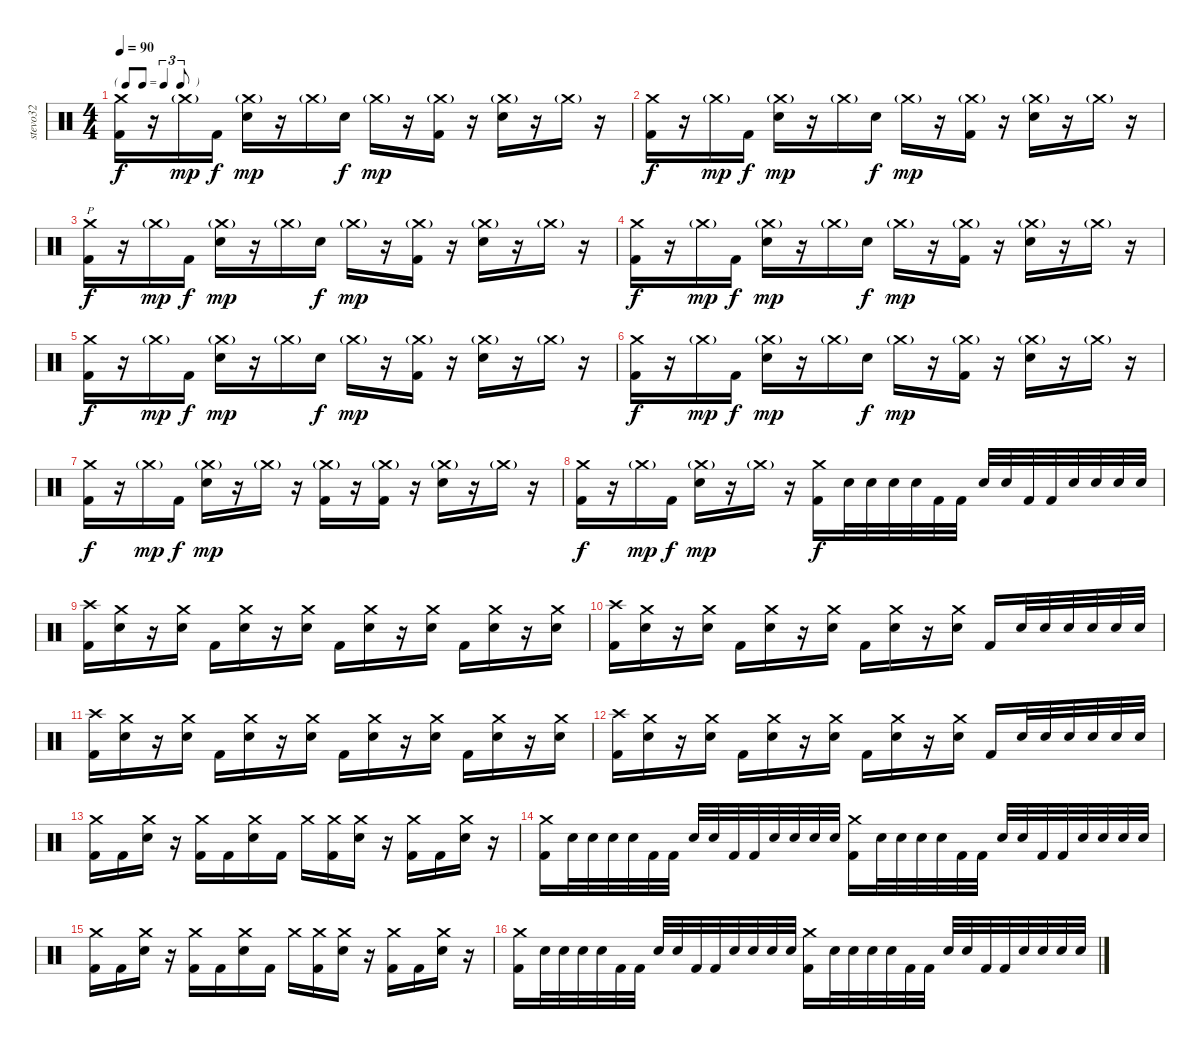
\track ("stevo32" "stevo32") {instrument percussion}
\staff {score}
\articulation defaults
\ts (4 4)
\tf triplet8th
\tempo 90
\clef neutral
\ks c
("Crash medium (hit)" "Kick (hit) 2").16{dy f} r.16 "Crash medium (hit)"{g}.16{dy mp} "Kick (hit) 2".16{dy f} ("Crash medium (hit)"{g} "Electric Snare (hit)").16{dy mp} r.16 "Crash medium (hit)"{g}.16 "Electric Snare (hit)".16{dy f} "Crash medium (hit)"{g}.16{dy mp} r.16 ("Crash medium (hit)"{g} "Kick (hit) 2").16 r.16 ("Crash medium (hit)"{g} "Electric Snare (hit)").16 r.16 "Crash medium (hit)"{g}.16 r.16 |
("Crash medium (hit)" "Kick (hit) 2").16{dy f} r.16 "Crash medium (hit)"{g}.16{dy mp} "Kick (hit) 2".16{dy f} ("Crash medium (hit)"{g} "Electric Snare (hit)").16{dy mp} r.16 "Crash medium (hit)"{g}.16 "Electric Snare (hit)".16{dy f} "Crash medium (hit)"{g}.16{dy mp} r.16 ("Crash medium (hit)"{g} "Kick (hit) 2").16 r.16 ("Crash medium (hit)"{g} "Electric Snare (hit)").16 r.16 "Crash medium (hit)"{g}.16 r.16 |
("Crash medium (hit)" "Kick (hit) 2").16{p dy f} r.16 "Crash medium (hit)"{g}.16{dy mp} "Kick (hit) 2".16{dy f} ("Crash medium (hit)"{g} "Electric Snare (hit)").16{dy mp} r.16 "Crash medium (hit)"{g}.16 "Electric Snare (hit)".16{dy f} "Crash medium (hit)"{g}.16{dy mp} r.16 ("Crash medium (hit)"{g} "Kick (hit) 2").16 r.16 ("Crash medium (hit)"{g} "Electric Snare (hit)").16 r.16 "Crash medium (hit)"{g}.16 r.16 |
("Crash medium (hit)" "Kick (hit) 2").16{dy f} r.16 "Crash medium (hit)"{g}.16{dy mp} "Kick (hit) 2".16{dy f} ("Crash medium (hit)"{g} "Electric Snare (hit)").16{dy mp} r.16 "Crash medium (hit)"{g}.16 "Electric Snare (hit)".16{dy f} "Crash medium (hit)"{g}.16{dy mp} r.16 ("Crash medium (hit)"{g} "Kick (hit) 2").16 r.16 ("Crash medium (hit)"{g} "Electric Snare (hit)").16 r.16 "Crash medium (hit)"{g}.16 r.16 |
("Crash medium (hit)" "Kick (hit) 2").16{dy f} r.16 "Crash medium (hit)"{g}.16{dy mp} "Kick (hit) 2".16{dy f} ("Crash medium (hit)"{g} "Electric Snare (hit)").16{dy mp} r.16 "Crash medium (hit)"{g}.16 "Electric Snare (hit)".16{dy f} "Crash medium (hit)"{g}.16{dy mp} r.16 ("Crash medium (hit)"{g} "Kick (hit) 2").16 r.16 ("Crash medium (hit)"{g} "Electric Snare (hit)").16 r.16 "Crash medium (hit)"{g}.16 r.16 |
("Crash medium (hit)" "Kick (hit) 2").16{dy f} r.16 "Crash medium (hit)"{g}.16{dy mp} "Kick (hit) 2".16{dy f} ("Crash medium (hit)"{g} "Electric Snare (hit)").16{dy mp} r.16 "Crash medium (hit)"{g}.16 "Electric Snare (hit)".16{dy f} "Crash medium (hit)"{g}.16{dy mp} r.16 ("Crash medium (hit)"{g} "Kick (hit) 2").16 r.16 ("Crash medium (hit)"{g} "Electric Snare (hit)").16 r.16 "Crash medium (hit)"{g}.16 r.16 |
("Crash medium (hit)" "Kick (hit) 2").16{dy f} r.16 "Crash medium (hit)"{g}.16{dy mp} "Kick (hit) 2".16{dy f} ("Crash medium (hit)"{g} "Electric Snare (hit)").16{dy mp} r.16 "Crash medium (hit)"{g}.16 r.16 ("Crash medium (hit)"{g} "Kick (hit) 2").16 r.16 ("Crash medium (hit)"{g} "Kick (hit) 2").16 r.16 ("Crash medium (hit)"{g} "Electric Snare (hit)").16 r.16 "Crash medium (hit)"{g}.16 r.16 |
("Crash medium (hit)" "Kick (hit) 2").16{dy f} r.16 "Crash medium (hit)"{g}.16{dy mp} "Kick (hit) 2".16{dy f} ("Crash medium (hit)"{g} "Electric Snare (hit)").16{dy mp} r.16 "Crash medium (hit)"{g}.16 r.16 ("Crash medium (hit)" "Kick (hit) 2").16{dy f} "Electric Snare (hit)".32 "Electric Snare (hit)".32 "Electric Snare (hit)".32 "Electric Snare (hit)".32 "Kick (hit) 2".32 "Kick (hit) 2".32 "Electric Snare (hit)".32 "Electric Snare (hit)".32 "Kick (hit) 2".32 "Kick (hit) 2".32 "Electric Snare (hit)".32 "Electric Snare (hit)".32 "Electric Snare (hit)".32 "Electric Snare (hit)".32 |
("Crash high (hit)" "Kick (hit) 2").16 ("Crash medium (hit)" "Electric Snare (hit)").16 r.16 ("Crash medium (hit)" "Electric Snare (hit)").16 "Kick (hit) 2".16 ("Crash medium (hit)" "Electric Snare (hit)").16 r.16 ("Crash medium (hit)" "Electric Snare (hit)").16 "Kick (hit) 2".16 ("Crash medium (hit)" "Electric Snare (hit)").16 r.16 ("Crash medium (hit)" "Electric Snare (hit)").16 "Kick (hit) 2".16 ("Crash medium (hit)" "Electric Snare (hit)").16 r.16 ("Crash medium (hit)" "Electric Snare (hit)").16 |
("Crash high (hit)" "Kick (hit) 2").16 ("Crash medium (hit)" "Electric Snare (hit)").16 r.16 ("Crash medium (hit)" "Electric Snare (hit)").16 "Kick (hit) 2".16 ("Crash medium (hit)" "Electric Snare (hit)").16 r.16 ("Crash medium (hit)" "Electric Snare (hit)").16 "Kick (hit) 2".16 ("Crash medium (hit)" "Electric Snare (hit)").16 r.16 ("Crash medium (hit)" "Electric Snare (hit)").16 "Kick (hit) 2".16 "Electric Snare (hit)".32 "Electric Snare (hit)".32 "Electric Snare (hit)".32 "Electric Snare (hit)".32 "Electric Snare (hit)".32 "Electric Snare (hit)".32 |
("Crash high (hit)" "Kick (hit) 2").16 ("Crash medium (hit)" "Electric Snare (hit)").16 r.16 ("Crash medium (hit)" "Electric Snare (hit)").16 "Kick (hit) 2".16 ("Crash medium (hit)" "Electric Snare (hit)").16 r.16 ("Crash medium (hit)" "Electric Snare (hit)").16 "Kick (hit) 2".16 ("Crash medium (hit)" "Electric Snare (hit)").16 r.16 ("Crash medium (hit)" "Electric Snare (hit)").16 "Kick (hit) 2".16 ("Crash medium (hit)" "Electric Snare (hit)").16 r.16 ("Crash medium (hit)" "Electric Snare (hit)").16 |
("Crash high (hit)" "Kick (hit) 2").16 ("Crash medium (hit)" "Electric Snare (hit)").16 r.16 ("Crash medium (hit)" "Electric Snare (hit)").16 "Kick (hit) 2".16 ("Crash medium (hit)" "Electric Snare (hit)").16 r.16 ("Crash medium (hit)" "Electric Snare (hit)").16 "Kick (hit) 2".16 ("Crash medium (hit)" "Electric Snare (hit)").16 r.16 ("Crash medium (hit)" "Electric Snare (hit)").16 "Kick (hit) 2".16 "Electric Snare (hit)".32 "Electric Snare (hit)".32 "Electric Snare (hit)".32 "Electric Snare (hit)".32 "Electric Snare (hit)".32 "Electric Snare (hit)".32 |
("Crash medium (hit)" "Kick (hit) 2").16 "Kick (hit) 2".16 ("Crash medium (hit)" "Electric Snare (hit)").16 r.16 ("Crash medium (hit)" "Kick (hit) 2").16 "Kick (hit) 2".16 ("Crash medium (hit)" "Electric Snare (hit)").16 "Kick (hit) 2".16 "Crash medium (hit)".16 ("Crash medium (hit)" "Kick (hit) 2").16 ("Crash medium (hit)" "Electric Snare (hit)").16 r.16 ("Crash medium (hit)" "Kick (hit) 2").16 "Kick (hit) 2".16 ("Crash medium (hit)" "Electric Snare (hit)").16 r.16 |
("Crash medium (hit)" "Kick (hit) 2").16 "Electric Snare (hit)".32 "Electric Snare (hit)".32 "Electric Snare (hit)".32 "Electric Snare (hit)".32 "Kick (hit) 2".32 "Kick (hit) 2".32 "Electric Snare (hit)".32 "Electric Snare (hit)".32 "Kick (hit) 2".32 "Kick (hit) 2".32 "Electric Snare (hit)".32 "Electric Snare (hit)".32 "Electric Snare (hit)".32 "Electric Snare (hit)".32 ("Crash medium (hit)" "Kick (hit) 2").16 "Electric Snare (hit)".32 "Electric Snare (hit)".32 "Snare (hit)".32 "Snare (hit)".32 "Kick (hit) 2".32 "Kick (hit) 2".32 "Electric Snare (hit)".32 "Electric Snare (hit)".32 "Kick (hit) 2".32 "Kick (hit) 2".32 "Electric Snare (hit)".32 "Electric Snare (hit)".32 "Electric Snare (hit)".32 "Electric Snare (hit)".32 |
("Crash medium (hit)" "Kick (hit) 2").16 "Kick (hit) 2".16 ("Crash medium (hit)" "Electric Snare (hit)").16 r.16 ("Crash medium (hit)" "Kick (hit) 2").16 "Kick (hit) 2".16 ("Crash medium (hit)" "Electric Snare (hit)").16 "Kick (hit) 2".16 "Crash medium (hit)".16 ("Crash medium (hit)" "Kick (hit) 2").16 ("Crash medium (hit)" "Electric Snare (hit)").16 r.16 ("Crash medium (hit)" "Kick (hit) 2").16 "Kick (hit) 2".16 ("Crash medium (hit)" "Electric Snare (hit)").16 r.16 |
("Crash medium (hit)" "Kick (hit) 2").16 "Electric Snare (hit)".32 "Electric Snare (hit)".32 "Electric Snare (hit)".32 "Electric Snare (hit)".32 "Kick (hit) 2".32 "Kick (hit) 2".32 "Electric Snare (hit)".32 "Electric Snare (hit)".32 "Kick (hit) 2".32 "Kick (hit) 2".32 "Electric Snare (hit)".32 "Electric Snare (hit)".32 "Electric Snare (hit)".32 "Electric Snare (hit)".32 ("Crash medium (hit)" "Kick (hit) 2").16 "Electric Snare (hit)".32 "Electric Snare (hit)".32 "Snare (hit)".32 "Snare (hit)".32 "Kick (hit) 2".32 "Kick (hit) 2".32 "Electric Snare (hit)".32 "Electric Snare (hit)".32 "Kick (hit) 2".32 "Kick (hit) 2".32 "Electric Snare (hit)".32 "Electric Snare (hit)".32 "Electric Snare (hit)".32 "Electric Snare (hit)".32
